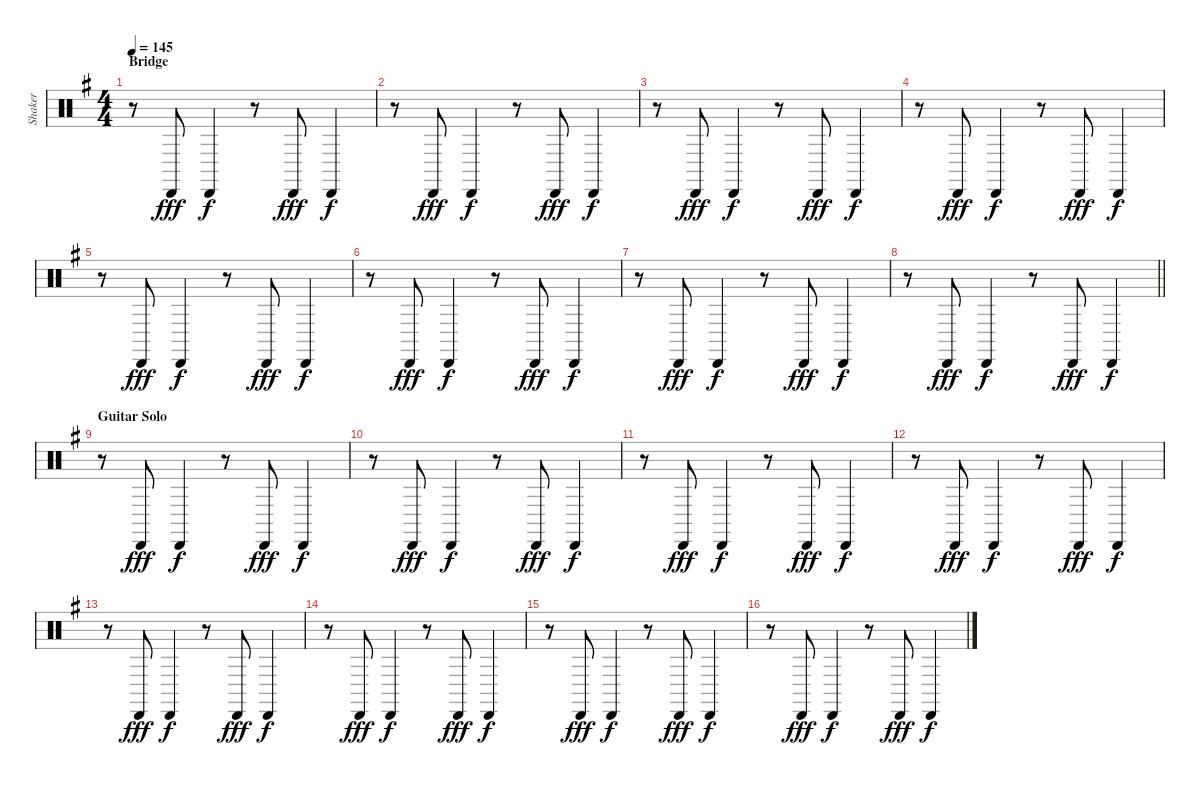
\track ("Shaker" "Shaker") {instrument percussion}
\staff {score}
\articulation defaults
\ts (4 4)
\section ("" "Bridge")
\tempo 145
\clef neutral
\ks g
r.8{dy f} "Cabasa (hit)".8{dy fff} "Cabasa (hit)".4{dy f} r.8 "Cabasa (hit)".8{dy fff} "Cabasa (hit)".4{dy f} |
r.8 "Cabasa (hit)".8{dy fff} "Cabasa (hit)".4{dy f} r.8 "Cabasa (hit)".8{dy fff} "Cabasa (hit)".4{dy f} |
r.8 "Cabasa (hit)".8{dy fff} "Cabasa (hit)".4{dy f} r.8 "Cabasa (hit)".8{dy fff} "Cabasa (hit)".4{dy f} |
r.8 "Cabasa (hit)".8{dy fff} "Cabasa (hit)".4{dy f} r.8 "Cabasa (hit)".8{dy fff} "Cabasa (hit)".4{dy f} |
r.8 "Cabasa (hit)".8{dy fff} "Cabasa (hit)".4{dy f} r.8 "Cabasa (hit)".8{dy fff} "Cabasa (hit)".4{dy f} |
r.8 "Cabasa (hit)".8{dy fff} "Cabasa (hit)".4{dy f} r.8 "Cabasa (hit)".8{dy fff} "Cabasa (hit)".4{dy f} |
r.8 "Cabasa (hit)".8{dy fff} "Cabasa (hit)".4{dy f} r.8 "Cabasa (hit)".8{dy fff} "Cabasa (hit)".4{dy f} |
\barLineRight lightlight
r.8 "Cabasa (hit)".8{dy fff} "Cabasa (hit)".4{dy f} r.8 "Cabasa (hit)".8{dy fff} "Cabasa (hit)".4{dy f} |
\section ("" "Guitar Solo")
r.8 "Cabasa (hit)".8{dy fff} "Cabasa (hit)".4{dy f} r.8 "Cabasa (hit)".8{dy fff} "Cabasa (hit)".4{dy f} |
r.8 "Cabasa (hit)".8{dy fff} "Cabasa (hit)".4{dy f} r.8 "Cabasa (hit)".8{dy fff} "Cabasa (hit)".4{dy f} |
r.8 "Cabasa (hit)".8{dy fff} "Cabasa (hit)".4{dy f} r.8 "Cabasa (hit)".8{dy fff} "Cabasa (hit)".4{dy f} |
r.8 "Cabasa (hit)".8{dy fff} "Cabasa (hit)".4{dy f} r.8 "Cabasa (hit)".8{dy fff} "Cabasa (hit)".4{dy f} |
r.8 "Cabasa (hit)".8{dy fff} "Cabasa (hit)".4{dy f} r.8 "Cabasa (hit)".8{dy fff} "Cabasa (hit)".4{dy f} |
r.8 "Cabasa (hit)".8{dy fff} "Cabasa (hit)".4{dy f} r.8 "Cabasa (hit)".8{dy fff} "Cabasa (hit)".4{dy f} |
r.8 "Cabasa (hit)".8{dy fff} "Cabasa (hit)".4{dy f} r.8 "Cabasa (hit)".8{dy fff} "Cabasa (hit)".4{dy f} |
r.8 "Cabasa (hit)".8{dy fff} "Cabasa (hit)".4{dy f} r.8 "Cabasa (hit)".8{dy fff} "Cabasa (hit)".4{dy f}
